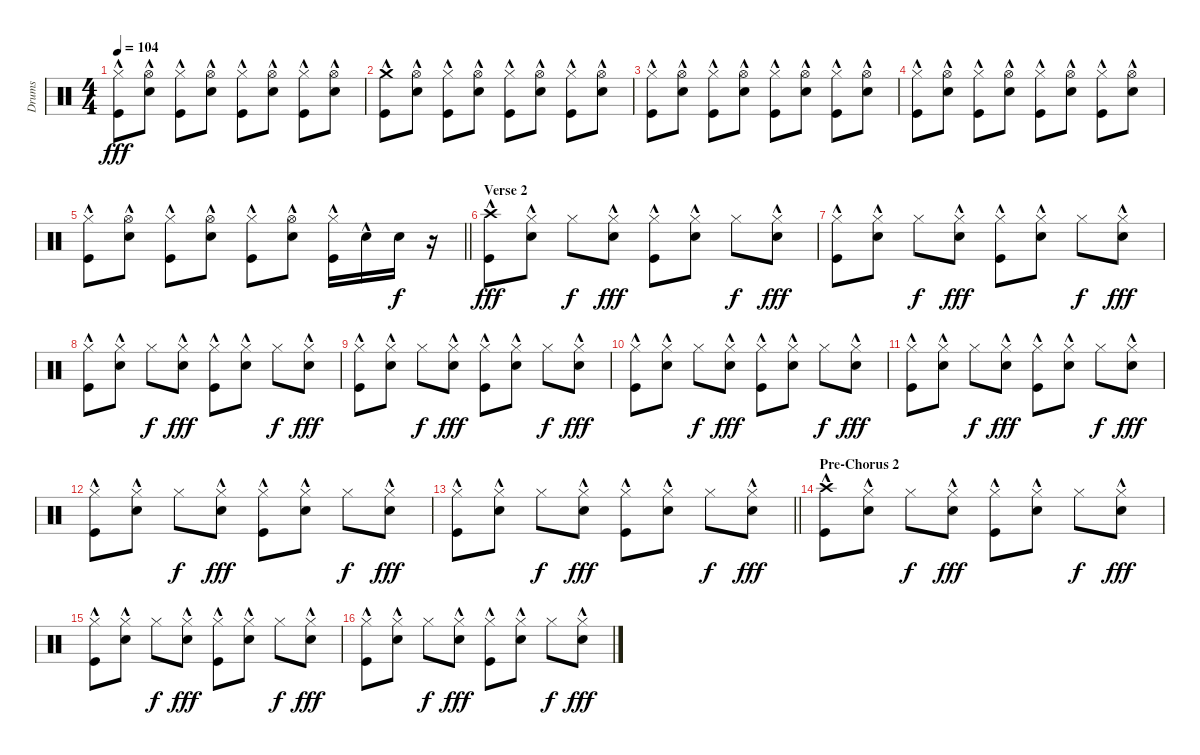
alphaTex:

\track ("Drums" "Drums") {instrument percussion}
\staff {score}
\articulation defaults
\ts (4 4)
\tempo 104
\clef neutral
\ks c
("Hi-Hat (closed)" "Kick (hit)"{hac}).8{dy fff} ("Hi-Hat (open)" "Snare (hit) 2"{hac}).8 ("Hi-Hat (closed)" "Kick (hit)"{hac}).8 ("Hi-Hat (open)" "Snare (hit) 2"{hac}).8 ("Hi-Hat (closed)" "Kick (hit)"{hac}).8 ("Hi-Hat (open)" "Snare (hit) 2"{hac}).8 ("Hi-Hat (closed)" "Kick (hit)"{hac}).8 ("Hi-Hat (open)" "Snare (hit) 2"{hac}).8 |
("Crash medium (hit)" "Kick (hit)"{hac}).8 ("Hi-Hat (open)" "Snare (hit) 2"{hac}).8 ("Hi-Hat (closed)" "Kick (hit)"{hac}).8 ("Hi-Hat (open)" "Snare (hit) 2"{hac}).8 ("Hi-Hat (closed)" "Kick (hit)"{hac}).8 ("Hi-Hat (open)" "Snare (hit) 2"{hac}).8 ("Hi-Hat (closed)" "Kick (hit)"{hac}).8 ("Hi-Hat (open)" "Snare (hit) 2"{hac}).8 |
("Hi-Hat (closed)" "Kick (hit)"{hac}).8 ("Hi-Hat (open)" "Snare (hit) 2"{hac}).8 ("Hi-Hat (closed)" "Kick (hit)"{hac}).8 ("Hi-Hat (open)" "Snare (hit) 2"{hac}).8 ("Hi-Hat (closed)" "Kick (hit)"{hac}).8 ("Hi-Hat (open)" "Snare (hit) 2"{hac}).8 ("Hi-Hat (closed)" "Kick (hit)"{hac}).8 ("Hi-Hat (open)" "Snare (hit) 2"{hac}).8 |
("Hi-Hat (closed)" "Kick (hit)"{hac}).8 ("Hi-Hat (open)" "Snare (hit) 2"{hac}).8 ("Hi-Hat (closed)" "Kick (hit)"{hac}).8 ("Hi-Hat (open)" "Snare (hit) 2"{hac}).8 ("Hi-Hat (closed)" "Kick (hit)"{hac}).8 ("Hi-Hat (open)" "Snare (hit) 2"{hac}).8 ("Hi-Hat (closed)" "Kick (hit)"{hac}).8 ("Hi-Hat (open)" "Snare (hit) 2"{hac}).8 |
\barLineRight lightlight
("Hi-Hat (closed)" "Kick (hit)"{hac}).8 ("Hi-Hat (open)" "Snare (hit) 2"{hac}).8 ("Hi-Hat (closed)" "Kick (hit)"{hac}).8 ("Hi-Hat (open)" "Snare (hit) 2"{hac}).8 ("Hi-Hat (closed)" "Kick (hit)"{hac}).8 ("Hi-Hat (open)" "Snare (hit) 2"{hac}).8 ("Hi-Hat (closed)" "Kick (hit)"{hac}).16 "Snare (hit) 2"{hac}.16 "Snare (hit) 2".16{dy f} r.16 |
\section ("" "Verse 2")
("Crash high (hit)" "Kick (hit)"{hac}).8{dy fff} ("Hi-Hat (closed)" "Snare (hit) 2"{hac}).8 "Hi-Hat (closed)".8{dy f} ("Hi-Hat (closed)" "Snare (hit) 2"{hac}).8{dy fff} ("Hi-Hat (closed)" "Kick (hit)"{hac}).8 ("Hi-Hat (closed)" "Snare (hit) 2"{hac}).8 "Hi-Hat (closed)".8{dy f} ("Hi-Hat (closed)" "Snare (hit) 2"{hac}).8{dy fff} |
("Hi-Hat (closed)" "Kick (hit)"{hac}).8 ("Hi-Hat (closed)" "Snare (hit) 2"{hac}).8 "Hi-Hat (closed)".8{dy f} ("Hi-Hat (closed)" "Snare (hit) 2"{hac}).8{dy fff} ("Hi-Hat (closed)" "Kick (hit)"{hac}).8 ("Hi-Hat (closed)" "Snare (hit) 2"{hac}).8 "Hi-Hat (closed)".8{dy f} ("Hi-Hat (closed)" "Snare (hit) 2"{hac}).8{dy fff} |
("Hi-Hat (closed)" "Kick (hit)"{hac}).8 ("Hi-Hat (closed)" "Snare (hit) 2"{hac}).8 "Hi-Hat (closed)".8{dy f} ("Hi-Hat (closed)" "Snare (hit) 2"{hac}).8{dy fff} ("Hi-Hat (closed)" "Kick (hit)"{hac}).8 ("Hi-Hat (closed)" "Snare (hit) 2"{hac}).8 "Hi-Hat (closed)".8{dy f} ("Hi-Hat (closed)" "Snare (hit) 2"{hac}).8{dy fff} |
("Hi-Hat (closed)" "Kick (hit)"{hac}).8 ("Hi-Hat (closed)" "Snare (hit) 2"{hac}).8 "Hi-Hat (closed)".8{dy f} ("Hi-Hat (closed)" "Snare (hit) 2"{hac}).8{dy fff} ("Hi-Hat (closed)" "Kick (hit)"{hac}).8 ("Hi-Hat (closed)" "Snare (hit) 2"{hac}).8 "Hi-Hat (closed)".8{dy f} ("Hi-Hat (closed)" "Snare (hit) 2"{hac}).8{dy fff} |
("Hi-Hat (closed)" "Kick (hit)"{hac}).8 ("Hi-Hat (closed)" "Snare (hit) 2"{hac}).8 "Hi-Hat (closed)".8{dy f} ("Hi-Hat (closed)" "Snare (hit) 2"{hac}).8{dy fff} ("Hi-Hat (closed)" "Kick (hit)"{hac}).8 ("Hi-Hat (closed)" "Snare (hit) 2"{hac}).8 "Hi-Hat (closed)".8{dy f} ("Hi-Hat (closed)" "Snare (hit) 2"{hac}).8{dy fff} |
("Hi-Hat (closed)" "Kick (hit)"{hac}).8 ("Hi-Hat (closed)" "Snare (hit) 2"{hac}).8 "Hi-Hat (closed)".8{dy f} ("Hi-Hat (closed)" "Snare (hit) 2"{hac}).8{dy fff} ("Hi-Hat (closed)" "Kick (hit)"{hac}).8 ("Hi-Hat (closed)" "Snare (hit) 2"{hac}).8 "Hi-Hat (closed)".8{dy f} ("Hi-Hat (closed)" "Snare (hit) 2"{hac}).8{dy fff} |
("Hi-Hat (closed)" "Kick (hit)"{hac}).8 ("Hi-Hat (closed)" "Snare (hit) 2"{hac}).8 "Hi-Hat (closed)".8{dy f} ("Hi-Hat (closed)" "Snare (hit) 2"{hac}).8{dy fff} ("Hi-Hat (closed)" "Kick (hit)"{hac}).8 ("Hi-Hat (closed)" "Snare (hit) 2"{hac}).8 "Hi-Hat (closed)".8{dy f} ("Hi-Hat (closed)" "Snare (hit) 2"{hac}).8{dy fff} |
\barLineRight lightlight
("Hi-Hat (closed)" "Kick (hit)"{hac}).8 ("Hi-Hat (closed)" "Snare (hit) 2"{hac}).8 "Hi-Hat (closed)".8{dy f} ("Hi-Hat (closed)" "Snare (hit) 2"{hac}).8{dy fff} ("Hi-Hat (closed)" "Kick (hit)"{hac}).8 ("Hi-Hat (closed)" "Snare (hit) 2"{hac}).8 "Hi-Hat (closed)".8{dy f} ("Hi-Hat (closed)" "Snare (hit) 2"{hac}).8{dy fff} |
\section ("" "Pre-Chorus 2")
("Crash high (hit)"{hac} "Kick (hit)"{hac}).8 ("Hi-Hat (closed)"{hac} "Snare (hit) 2"{hac}).8 "Hi-Hat (closed)".8{dy f} ("Hi-Hat (closed)"{hac} "Snare (hit) 2"{hac}).8{dy fff} ("Hi-Hat (closed)" "Kick (hit)"{hac}).8 ("Hi-Hat (closed)"{hac} "Snare (hit) 2"{hac}).8 "Hi-Hat (closed)".8{dy f} ("Hi-Hat (closed)"{hac} "Snare (hit) 2"{hac}).8{dy fff} |
("Hi-Hat (closed)" "Kick (hit)"{hac}).8 ("Hi-Hat (closed)"{hac} "Snare (hit) 2"{hac}).8 "Hi-Hat (closed)".8{dy f} ("Hi-Hat (closed)"{hac} "Snare (hit) 2"{hac}).8{dy fff} ("Hi-Hat (closed)" "Kick (hit)"{hac}).8 ("Hi-Hat (closed)"{hac} "Snare (hit) 2"{hac}).8 "Hi-Hat (closed)".8{dy f} ("Hi-Hat (closed)"{hac} "Snare (hit) 2"{hac}).8{dy fff} |
("Hi-Hat (closed)" "Kick (hit)"{hac}).8 ("Hi-Hat (closed)"{hac} "Snare (hit) 2"{hac}).8 "Hi-Hat (closed)".8{dy f} ("Hi-Hat (closed)"{hac} "Snare (hit) 2"{hac}).8{dy fff} ("Hi-Hat (closed)" "Kick (hit)"{hac}).8 ("Hi-Hat (closed)"{hac} "Snare (hit) 2"{hac}).8 "Hi-Hat (closed)".8{dy f} ("Hi-Hat (closed)"{hac} "Snare (hit) 2"{hac}).8{dy fff}
